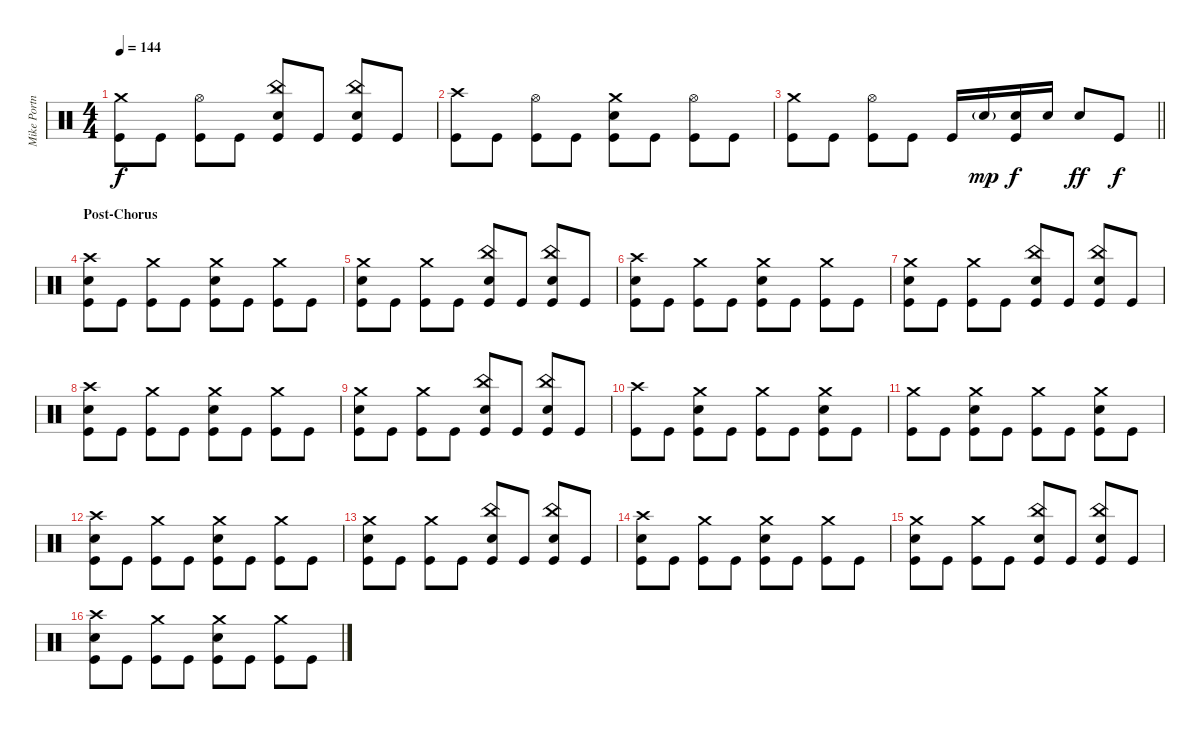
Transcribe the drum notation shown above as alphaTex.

\track ("Mike Portnoy" "Mike Portn") {instrument percussion}
\staff {score}
\articulation defaults
\ts (4 4)
\tempo 144
\clef neutral
\ks c
("Crash medium (hit)" "Kick (hit)").8{dy f} "Kick (hit)".8 ("Hi-Hat (open)" "Kick (hit)").8 "Kick (hit)".8 ("China (hit)" "Electric Snare (hit)" "Kick (hit)").8 "Kick (hit)".8 ("China (hit)" "Electric Snare (hit)" "Kick (hit)").8 "Kick (hit)".8 |
("Crash high (hit)" "Kick (hit)").8 "Kick (hit)".8 ("Hi-Hat (open)" "Kick (hit)").8 "Kick (hit)".8 ("Crash medium (hit)" "Electric Snare (hit)" "Kick (hit)").8 "Kick (hit)".8 ("Hi-Hat (open)" "Kick (hit)").8 "Kick (hit)".8 |
\barLineRight lightlight
("Crash medium (hit)" "Kick (hit)").8 "Kick (hit)".8 ("Hi-Hat (open)" "Kick (hit)").8 "Kick (hit)".8 "Kick (hit)".16 "Electric Snare (hit)"{g}.16{dy mp} ("Electric Snare (hit)" "Kick (hit)").16{dy f} "Electric Snare (hit)".16 "Electric Snare (hit)".8{dy ff} "Kick (hit)".8{dy f} |
\section ("" "Post-Chorus")
("Crash high (hit)" "Electric Snare (hit)" "Kick (hit)").8 "Kick (hit)".8 ("Crash medium (hit)" "Kick (hit)").8 "Kick (hit)".8 ("Crash medium (hit)" "Electric Snare (hit)" "Kick (hit)").8 "Kick (hit)".8 ("Crash medium (hit)" "Kick (hit)").8 "Kick (hit)".8 |
("Crash medium (hit)" "Electric Snare (hit)" "Kick (hit)").8 "Kick (hit)".8 ("Crash medium (hit)" "Kick (hit)").8 "Kick (hit)".8 ("China (hit)" "Electric Snare (hit)" "Kick (hit)").8 "Kick (hit)".8 ("China (hit)" "Electric Snare (hit)" "Kick (hit)").8 "Kick (hit)".8 |
("Crash high (hit)" "Electric Snare (hit)" "Kick (hit)").8 "Kick (hit)".8 ("Crash medium (hit)" "Kick (hit)").8 "Kick (hit)".8 ("Crash medium (hit)" "Electric Snare (hit)" "Kick (hit)").8 "Kick (hit)".8 ("Crash medium (hit)" "Kick (hit)").8 "Kick (hit)".8 |
("Crash medium (hit)" "Electric Snare (hit)" "Kick (hit)").8 "Kick (hit)".8 ("Crash medium (hit)" "Kick (hit)").8 "Kick (hit)".8 ("China (hit)" "Electric Snare (hit)" "Kick (hit)").8 "Kick (hit)".8 ("China (hit)" "Electric Snare (hit)" "Kick (hit)").8 "Kick (hit)".8 |
("Crash high (hit)" "Electric Snare (hit)" "Kick (hit)").8 "Kick (hit)".8 ("Crash medium (hit)" "Kick (hit)").8 "Kick (hit)".8 ("Crash medium (hit)" "Electric Snare (hit)" "Kick (hit)").8 "Kick (hit)".8 ("Crash medium (hit)" "Kick (hit)").8 "Kick (hit)".8 |
("Crash medium (hit)" "Electric Snare (hit)" "Kick (hit)").8 "Kick (hit)".8 ("Crash medium (hit)" "Kick (hit)").8 "Kick (hit)".8 ("China (hit)" "Electric Snare (hit)" "Kick (hit)").8 "Kick (hit)".8 ("China (hit)" "Electric Snare (hit)" "Kick (hit)").8 "Kick (hit)".8 |
("Crash high (hit)" "Kick (hit)").8 "Kick (hit)".8 ("Crash medium (hit)" "Electric Snare (hit)" "Kick (hit)").8 "Kick (hit)".8 ("Crash medium (hit)" "Kick (hit)").8 "Kick (hit)".8 ("Crash medium (hit)" "Electric Snare (hit)" "Kick (hit)").8 "Kick (hit)".8 |
("Crash medium (hit)" "Kick (hit)").8 "Kick (hit)".8 ("Crash medium (hit)" "Electric Snare (hit)" "Kick (hit)").8 "Kick (hit)".8 ("Crash medium (hit)" "Kick (hit)").8 "Kick (hit)".8 ("Crash medium (hit)" "Electric Snare (hit)" "Kick (hit)").8 "Kick (hit)".8 |
("Crash high (hit)" "Electric Snare (hit)" "Kick (hit)").8 "Kick (hit)".8 ("Crash medium (hit)" "Kick (hit)").8 "Kick (hit)".8 ("Crash medium (hit)" "Electric Snare (hit)" "Kick (hit)").8 "Kick (hit)".8 ("Crash medium (hit)" "Kick (hit)").8 "Kick (hit)".8 |
("Crash medium (hit)" "Electric Snare (hit)" "Kick (hit)").8 "Kick (hit)".8 ("Crash medium (hit)" "Kick (hit)").8 "Kick (hit)".8 ("China (hit)" "Electric Snare (hit)" "Kick (hit)").8 "Kick (hit)".8 ("China (hit)" "Electric Snare (hit)" "Kick (hit)").8 "Kick (hit)".8 |
("Crash high (hit)" "Electric Snare (hit)" "Kick (hit)").8 "Kick (hit)".8 ("Crash medium (hit)" "Kick (hit)").8 "Kick (hit)".8 ("Crash medium (hit)" "Electric Snare (hit)" "Kick (hit)").8 "Kick (hit)".8 ("Crash medium (hit)" "Kick (hit)").8 "Kick (hit)".8 |
("Crash medium (hit)" "Electric Snare (hit)" "Kick (hit)").8 "Kick (hit)".8 ("Crash medium (hit)" "Kick (hit)").8 "Kick (hit)".8 ("China (hit)" "Electric Snare (hit)" "Kick (hit)").8 "Kick (hit)".8 ("China (hit)" "Electric Snare (hit)" "Kick (hit)").8 "Kick (hit)".8 |
("Crash high (hit)" "Electric Snare (hit)" "Kick (hit)").8 "Kick (hit)".8 ("Crash medium (hit)" "Kick (hit)").8 "Kick (hit)".8 ("Crash medium (hit)" "Electric Snare (hit)" "Kick (hit)").8 "Kick (hit)".8 ("Crash medium (hit)" "Kick (hit)").8 "Kick (hit)".8
